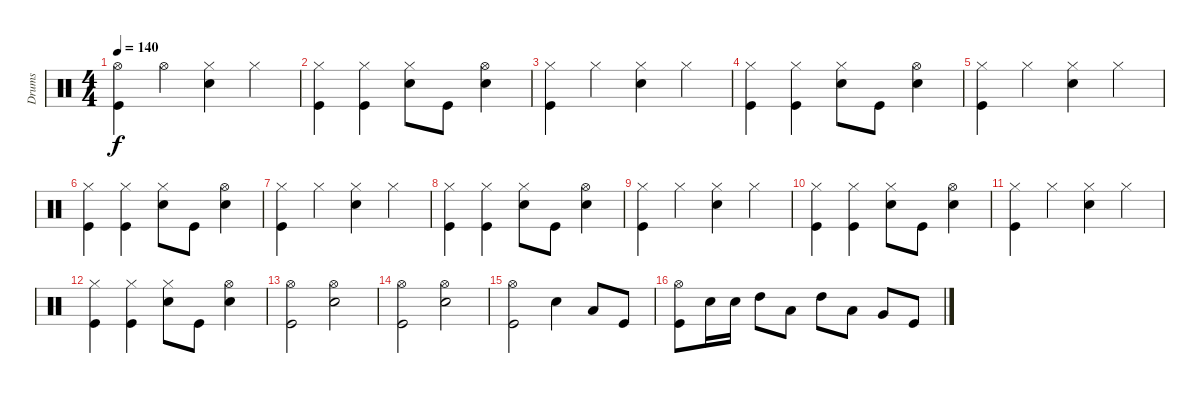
\track ("Drums" "Drums") {instrument percussion}
\staff {score}
\articulation defaults
\ts (4 4)
\tempo 140
\clef neutral
\ks c
("Kick (hit)" "Hi-Hat (open)").4{dy f} "Hi-Hat (open)".4 ("Snare (hit) 2" "Hi-Hat (closed)").4 "Hi-Hat (closed)".4 |
("Kick (hit)" "Hi-Hat (closed)").4 ("Kick (hit)" "Hi-Hat (closed)").4 ("Snare (hit) 2" "Hi-Hat (closed)").8 "Kick (hit)".8 ("Snare (hit) 2" "Hi-Hat (open)").4 |
("Kick (hit)" "Hi-Hat (closed)").4 "Hi-Hat (closed)".4 ("Snare (hit) 2" "Hi-Hat (closed)").4 "Hi-Hat (closed)".4 |
("Kick (hit)" "Hi-Hat (closed)").4 ("Kick (hit)" "Hi-Hat (closed)").4 ("Snare (hit) 2" "Hi-Hat (closed)").8 "Kick (hit)".8 ("Snare (hit) 2" "Hi-Hat (open)").4 |
("Kick (hit)" "Hi-Hat (closed)").4 "Hi-Hat (closed)".4 ("Snare (hit) 2" "Hi-Hat (closed)").4 "Hi-Hat (closed)".4 |
("Kick (hit)" "Hi-Hat (closed)").4 ("Kick (hit)" "Hi-Hat (closed)").4 ("Snare (hit) 2" "Hi-Hat (closed)").8 "Kick (hit)".8 ("Snare (hit) 2" "Hi-Hat (open)").4 |
("Kick (hit)" "Hi-Hat (closed)").4 "Hi-Hat (closed)".4 ("Snare (hit) 2" "Hi-Hat (closed)").4 "Hi-Hat (closed)".4 |
("Kick (hit)" "Hi-Hat (closed)").4 ("Kick (hit)" "Hi-Hat (closed)").4 ("Snare (hit) 2" "Hi-Hat (closed)").8 "Kick (hit)".8 ("Snare (hit) 2" "Hi-Hat (open)").4 |
("Kick (hit)" "Hi-Hat (closed)").4 "Hi-Hat (closed)".4 ("Snare (hit) 2" "Hi-Hat (closed)").4 "Hi-Hat (closed)".4 |
("Kick (hit)" "Hi-Hat (closed)").4 ("Kick (hit)" "Hi-Hat (closed)").4 ("Snare (hit) 2" "Hi-Hat (closed)").8 "Kick (hit)".8 ("Snare (hit) 2" "Hi-Hat (open)").4 |
("Kick (hit)" "Hi-Hat (closed)").4 "Hi-Hat (closed)".4 ("Snare (hit) 2" "Hi-Hat (closed)").4 "Hi-Hat (closed)".4 |
("Kick (hit)" "Hi-Hat (closed)").4 ("Kick (hit)" "Hi-Hat (closed)").4 ("Snare (hit) 2" "Hi-Hat (closed)").8 "Kick (hit)".8 ("Snare (hit) 2" "Hi-Hat (open)").4 |
("Hi-Hat (open)" "Kick (hit)").2 ("Hi-Hat (open)" "Snare (hit) 2").2 |
("Hi-Hat (open)" "Kick (hit)").2 ("Hi-Hat (open)" "Snare (hit) 2").2 |
("Hi-Hat (open)" "Kick (hit)").2 "Snare (hit) 2".4 "Low Tom (hit)".8 "Kick (hit)".8 |
("Kick (hit)" "Hi-Hat (open)").8 "Snare (hit) 2".16 "Snare (hit) 2".16 "High Tom (hit)".8 "Low Tom (hit)".8 "High Tom (hit)".8 "Low Tom (hit)".8 "Very Low Tom (hit)".8 "Kick (hit)".8
